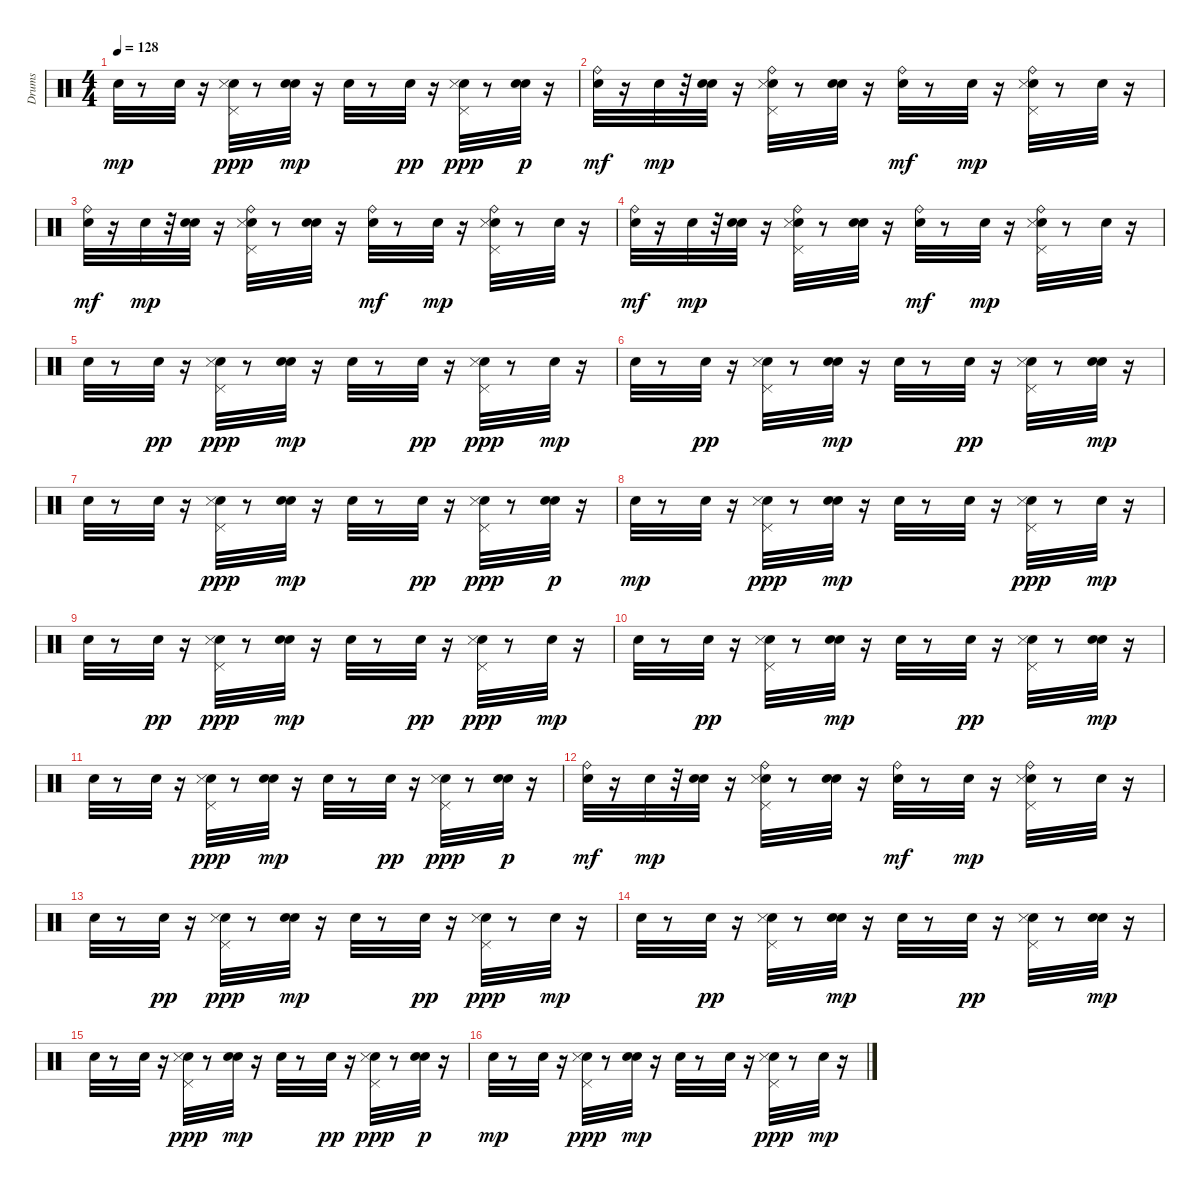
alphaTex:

\track ("Drums" "Drums") {instrument percussion}
\staff {score}
\articulation defaults
\ts (4 4)
\tempo 128
\clef neutral
\ks c "Snare (hit)".32{dy mp}
r.8 "Snare (hit)".32 r.16 ("Pedal Hi-Hat (hit)" "Snare (hit)" "Snare (side stick) 3").32{dy ppp} r.8 ("Snare (hit)" "Snare (hit)").32{dy mp} r.16 "Snare (hit)".32 r.8 "Snare (hit)".32{dy pp} r.16 ("Pedal Hi-Hat (hit)" "Snare (hit)" "Snare (side stick) 3").32{dy ppp} r.8 ("Snare (hit)" "Snare (hit)").32{dy p} r.16 |
("Snare (hit)" "Ride (bell)").32{dy mf} r.16 "Snare (hit)".32{dy mp} r.32 ("Snare (hit)" "Snare (hit)").32 r.16 ("Pedal Hi-Hat (hit)" "Snare (hit)" "Snare (side stick) 3" "Ride (bell)").32 r.8 ("Snare (hit)" "Snare (hit)").32 r.16 ("Snare (hit)" "Ride (bell)").32{dy mf} r.8 "Snare (hit)".32{dy mp} r.16 ("Pedal Hi-Hat (hit)" "Snare (hit)" "Snare (side stick) 3" "Ride (bell)").32 r.8 "Snare (hit)".32 r.16 |
("Snare (hit)" "Ride (bell)").32{dy mf} r.16 "Snare (hit)".32{dy mp} r.32 ("Snare (hit)" "Snare (hit)").32 r.16 ("Pedal Hi-Hat (hit)" "Snare (hit)" "Snare (side stick) 3" "Ride (bell)").32 r.8 ("Snare (hit)" "Snare (hit)").32 r.16 ("Snare (hit)" "Ride (bell)").32{dy mf} r.8 "Snare (hit)".32{dy mp} r.16 ("Pedal Hi-Hat (hit)" "Snare (hit)" "Snare (side stick) 3" "Ride (bell)").32 r.8 "Snare (hit)".32 r.16 |
("Snare (hit)" "Ride (bell)").32{dy mf} r.16 "Snare (hit)".32{dy mp} r.32 ("Snare (hit)" "Snare (hit)").32 r.16 ("Pedal Hi-Hat (hit)" "Snare (hit)" "Snare (side stick) 3" "Ride (bell)").32 r.8 ("Snare (hit)" "Snare (hit)").32 r.16 ("Snare (hit)" "Ride (bell)").32{dy mf} r.8 "Snare (hit)".32{dy mp} r.16 ("Pedal Hi-Hat (hit)" "Snare (hit)" "Snare (side stick) 3" "Ride (bell)").32 r.8 "Snare (hit)".32 r.16 |
"Snare (hit)".32 r.8 "Snare (hit)".32{dy pp} r.16 ("Pedal Hi-Hat (hit)" "Snare (hit)" "Snare (side stick) 3").32{dy ppp} r.8 ("Snare (hit)" "Snare (hit)").32{dy mp} r.16 "Snare (hit)".32 r.8 "Snare (hit)".32{dy pp} r.16 ("Pedal Hi-Hat (hit)" "Snare (hit)" "Snare (side stick) 3").32{dy ppp} r.8 "Snare (hit)".32{dy mp} r.16 |
"Snare (hit)".32 r.8 "Snare (hit)".32{dy pp} r.16 ("Pedal Hi-Hat (hit)" "Snare (hit)" "Snare (side stick) 3").32 r.8 ("Snare (hit)" "Snare (hit)").32{dy mp} r.16 "Snare (hit)".32 r.8 "Snare (hit)".32{dy pp} r.16 ("Pedal Hi-Hat (hit)" "Snare (hit)" "Snare (side stick) 3").32 r.8 ("Snare (hit)" "Snare (hit)").32{dy mp} r.16 |
"Snare (hit)".32 r.8 "Snare (hit)".32 r.16 ("Pedal Hi-Hat (hit)" "Snare (hit)" "Snare (side stick) 3").32{dy ppp} r.8 ("Snare (hit)" "Snare (hit)").32{dy mp} r.16 "Snare (hit)".32 r.8 "Snare (hit)".32{dy pp} r.16 ("Pedal Hi-Hat (hit)" "Snare (hit)" "Snare (side stick) 3").32{dy ppp} r.8 ("Snare (hit)" "Snare (hit)").32{dy p} r.16 |
"Snare (hit)".32{dy mp} r.8 "Snare (hit)".32 r.16 ("Pedal Hi-Hat (hit)" "Snare (hit)" "Snare (side stick) 3").32{dy ppp} r.8 ("Snare (hit)" "Snare (hit)").32{dy mp} r.16 "Snare (hit)".32 r.8 "Snare (hit)".32 r.16 ("Pedal Hi-Hat (hit)" "Snare (hit)" "Snare (side stick) 3").32{dy ppp} r.8 "Snare (hit)".32{dy mp} r.16 |
"Snare (hit)".32 r.8 "Snare (hit)".32{dy pp} r.16 ("Pedal Hi-Hat (hit)" "Snare (hit)" "Snare (side stick) 3").32{dy ppp} r.8 ("Snare (hit)" "Snare (hit)").32{dy mp} r.16 "Snare (hit)".32 r.8 "Snare (hit)".32{dy pp} r.16 ("Pedal Hi-Hat (hit)" "Snare (hit)" "Snare (side stick) 3").32{dy ppp} r.8 "Snare (hit)".32{dy mp} r.16 |
"Snare (hit)".32 r.8 "Snare (hit)".32{dy pp} r.16 ("Pedal Hi-Hat (hit)" "Snare (hit)" "Snare (side stick) 3").32 r.8 ("Snare (hit)" "Snare (hit)").32{dy mp} r.16 "Snare (hit)".32 r.8 "Snare (hit)".32{dy pp} r.16 ("Pedal Hi-Hat (hit)" "Snare (hit)" "Snare (side stick) 3").32 r.8 ("Snare (hit)" "Snare (hit)").32{dy mp} r.16 |
"Snare (hit)".32 r.8 "Snare (hit)".32 r.16 ("Pedal Hi-Hat (hit)" "Snare (hit)" "Snare (side stick) 3").32{dy ppp} r.8 ("Snare (hit)" "Snare (hit)").32{dy mp} r.16 "Snare (hit)".32 r.8 "Snare (hit)".32{dy pp} r.16 ("Pedal Hi-Hat (hit)" "Snare (hit)" "Snare (side stick) 3").32{dy ppp} r.8 ("Snare (hit)" "Snare (hit)").32{dy p} r.16 |
("Snare (hit)" "Ride (bell)").32{dy mf} r.16 "Snare (hit)".32{dy mp} r.32 ("Snare (hit)" "Snare (hit)").32 r.16 ("Pedal Hi-Hat (hit)" "Snare (hit)" "Snare (side stick) 3" "Ride (bell)").32 r.8 ("Snare (hit)" "Snare (hit)").32 r.16 ("Snare (hit)" "Ride (bell)").32{dy mf} r.8 "Snare (hit)".32{dy mp} r.16 ("Pedal Hi-Hat (hit)" "Snare (hit)" "Snare (side stick) 3" "Ride (bell)").32 r.8 "Snare (hit)".32 r.16 |
"Snare (hit)".32 r.8 "Snare (hit)".32{dy pp} r.16 ("Pedal Hi-Hat (hit)" "Snare (hit)" "Snare (side stick) 3").32{dy ppp} r.8 ("Snare (hit)" "Snare (hit)").32{dy mp} r.16 "Snare (hit)".32 r.8 "Snare (hit)".32{dy pp} r.16 ("Pedal Hi-Hat (hit)" "Snare (hit)" "Snare (side stick) 3").32{dy ppp} r.8 "Snare (hit)".32{dy mp} r.16 |
"Snare (hit)".32 r.8 "Snare (hit)".32{dy pp} r.16 ("Pedal Hi-Hat (hit)" "Snare (hit)" "Snare (side stick) 3").32 r.8 ("Snare (hit)" "Snare (hit)").32{dy mp} r.16 "Snare (hit)".32 r.8 "Snare (hit)".32{dy pp} r.16 ("Pedal Hi-Hat (hit)" "Snare (hit)" "Snare (side stick) 3").32 r.8 ("Snare (hit)" "Snare (hit)").32{dy mp} r.16 |
"Snare (hit)".32 r.8 "Snare (hit)".32 r.16 ("Pedal Hi-Hat (hit)" "Snare (hit)" "Snare (side stick) 3").32{dy ppp} r.8 ("Snare (hit)" "Snare (hit)").32{dy mp} r.16 "Snare (hit)".32 r.8 "Snare (hit)".32{dy pp} r.16 ("Pedal Hi-Hat (hit)" "Snare (hit)" "Snare (side stick) 3").32{dy ppp} r.8 ("Snare (hit)" "Snare (hit)").32{dy p} r.16 |
"Snare (hit)".32{dy mp} r.8 "Snare (hit)".32 r.16 ("Pedal Hi-Hat (hit)" "Snare (hit)" "Snare (side stick) 3").32{dy ppp} r.8 ("Snare (hit)" "Snare (hit)").32{dy mp} r.16 "Snare (hit)".32 r.8 "Snare (hit)".32 r.16 ("Pedal Hi-Hat (hit)" "Snare (hit)" "Snare (side stick) 3").32{dy ppp} r.8 "Snare (hit)".32{dy mp} r.16
